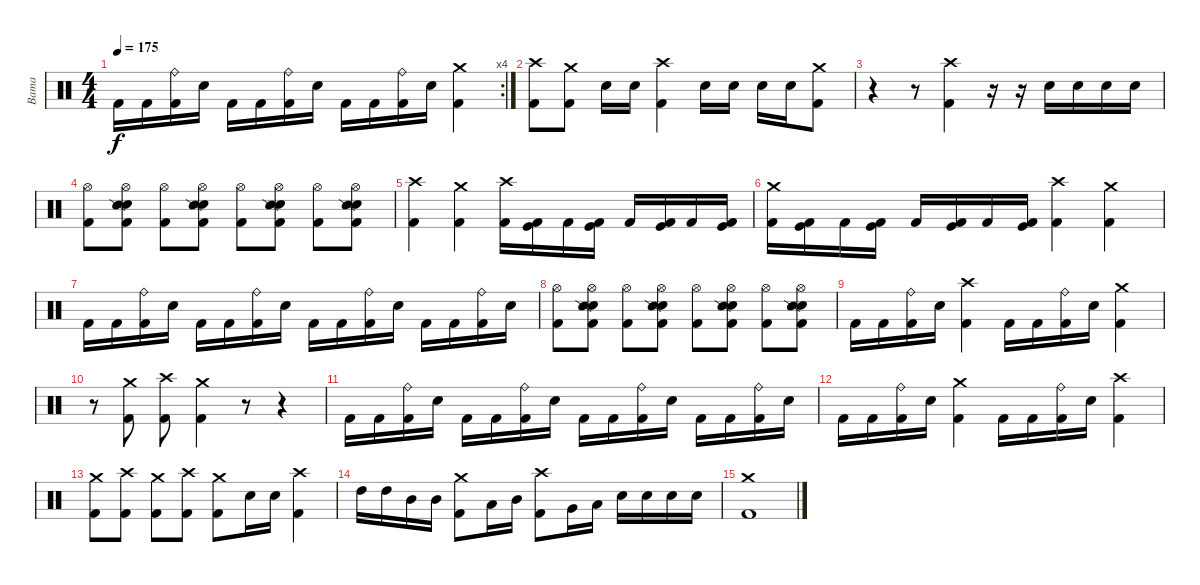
\track ("Bama" "Bama") {instrument percussion}
\staff {score}
\articulation defaults
\rc 4
\ts (4 4)
\tempo 175
\clef neutral
\ks c "Kick (hit) 2".16{dy f} "Kick (hit) 2".16
("Ride (bell)" "Kick (hit) 2").16 "Electric Snare (hit)".16 "Kick (hit) 2".16 "Kick (hit) 2".16 ("Ride (bell)" "Kick (hit) 2").16 "Electric Snare (hit)".16 "Kick (hit) 2".16 "Kick (hit) 2".16 ("Ride (bell)" "Kick (hit) 2").16 "Electric Snare (hit)".16 ("Crash medium (hit)" "Kick (hit) 2").4 |
("Crash high (hit)" "Kick (hit) 2").8 ("Crash medium (hit)" "Kick (hit) 2").8 "Electric Snare (hit)".16 "Electric Snare (hit)".16 ("Crash high (hit)" "Kick (hit) 2").4 "Electric Snare (hit)".16 "Electric Snare (hit)".16 "Electric Snare (hit)".16 "Electric Snare (hit)".16 ("Crash medium (hit)" "Kick (hit) 2").8 |
r.4 r.8 ("Crash high (hit)" "Kick (hit) 2").4 r.16 r.16 "Electric Snare (hit)".16 "Electric Snare (hit)".16 "Electric Snare (hit)".16 "Electric Snare (hit)".16 |
("Hi-Hat (open)" "Kick (hit) 2").8 ("Hi-Hat (open)" "Electric Snare (hit)" "Snare (side stick) 2" "Kick (hit) 2").8 ("Hi-Hat (open)" "Kick (hit) 2").8 ("Hi-Hat (open)" "Electric Snare (hit)" "Snare (side stick) 2" "Kick (hit) 2").8 ("Hi-Hat (open)" "Kick (hit) 2").8 ("Hi-Hat (open)" "Electric Snare (hit)" "Snare (side stick) 2" "Kick (hit) 2").8 ("Hi-Hat (open)" "Kick (hit) 2").8 ("Hi-Hat (open)" "Electric Snare (hit)" "Snare (side stick) 2" "Kick (hit) 2").8 |
("Crash high (hit)" "Kick (hit) 2").4 ("Crash medium (hit)" "Kick (hit) 2").4 ("Crash high (hit)" "Kick (hit) 2").16 ("Kick (hit)" "Kick (hit) 2").16 "Kick (hit) 2".16 ("Kick (hit)" "Kick (hit) 2").16 "Kick (hit) 2".16 ("Kick (hit)" "Kick (hit) 2").16 "Kick (hit) 2".16 ("Kick (hit)" "Kick (hit) 2").16 |
("Crash medium (hit)" "Kick (hit) 2").16 ("Kick (hit)" "Kick (hit) 2").16 "Kick (hit) 2".16 ("Kick (hit)" "Kick (hit) 2").16 "Kick (hit) 2".16 ("Kick (hit)" "Kick (hit) 2").16 "Kick (hit) 2".16 ("Kick (hit)" "Kick (hit) 2").16 ("Crash high (hit)" "Kick (hit) 2").4 ("Crash medium (hit)" "Kick (hit) 2").4 |
"Kick (hit) 2".16 "Kick (hit) 2".16 ("Ride (bell)" "Kick (hit) 2").16 "Electric Snare (hit)".16 "Kick (hit) 2".16 "Kick (hit) 2".16 ("Ride (bell)" "Kick (hit) 2").16 "Electric Snare (hit)".16 "Kick (hit) 2".16 "Kick (hit) 2".16 ("Ride (bell)" "Kick (hit) 2").16 "Electric Snare (hit)".16 "Kick (hit) 2".16 "Kick (hit) 2".16 ("Ride (bell)" "Kick (hit) 2").16 "Electric Snare (hit)".16 |
("Hi-Hat (open)" "Kick (hit) 2").8 ("Hi-Hat (open)" "Electric Snare (hit)" "Snare (side stick) 2" "Kick (hit) 2").8 ("Hi-Hat (open)" "Kick (hit) 2").8 ("Hi-Hat (open)" "Electric Snare (hit)" "Snare (side stick) 2" "Kick (hit) 2").8 ("Hi-Hat (open)" "Kick (hit) 2").8 ("Hi-Hat (open)" "Electric Snare (hit)" "Snare (side stick) 2" "Kick (hit) 2").8 ("Hi-Hat (open)" "Kick (hit) 2").8 ("Hi-Hat (open)" "Electric Snare (hit)" "Snare (side stick) 2" "Kick (hit) 2").8 |
"Kick (hit) 2".16 "Kick (hit) 2".16 ("Ride (bell)" "Kick (hit) 2").16 "Electric Snare (hit)".16 ("Crash high (hit)" "Kick (hit) 2").4 "Kick (hit) 2".16 "Kick (hit) 2".16 ("Ride (bell)" "Kick (hit) 2").16 "Electric Snare (hit)".16 ("Crash medium (hit)" "Kick (hit) 2").4 |
r.8 ("Crash medium (hit)" "Kick (hit) 2").8 ("Crash high (hit)" "Kick (hit) 2").8 ("Crash medium (hit)" "Kick (hit) 2").4 r.8 r.4 |
"Kick (hit) 2".16 "Kick (hit) 2".16 ("Ride (bell)" "Kick (hit) 2").16 "Electric Snare (hit)".16 "Kick (hit) 2".16 "Kick (hit) 2".16 ("Ride (bell)" "Kick (hit) 2").16 "Electric Snare (hit)".16 "Kick (hit) 2".16 "Kick (hit) 2".16 ("Ride (bell)" "Kick (hit) 2").16 "Electric Snare (hit)".16 "Kick (hit) 2".16 "Kick (hit) 2".16 ("Ride (bell)" "Kick (hit) 2").16 "Electric Snare (hit)".16 |
"Kick (hit) 2".16 "Kick (hit) 2".16 ("Ride (bell)" "Kick (hit) 2").16 "Electric Snare (hit)".16 ("Crash medium (hit)" "Kick (hit) 2").4 "Kick (hit) 2".16 "Kick (hit) 2".16 ("Ride (bell)" "Kick (hit) 2").16 "Electric Snare (hit)".16 ("Crash high (hit)" "Kick (hit) 2").4 |
("Crash medium (hit)" "Kick (hit) 2").8 ("Crash high (hit)" "Kick (hit) 2").8 ("Crash medium (hit)" "Kick (hit) 2").8 ("Crash high (hit)" "Kick (hit) 2").8 ("Crash medium (hit)" "Kick (hit) 2").8 "Electric Snare (hit)".16 "Electric Snare (hit)".16 ("Crash high (hit)" "Kick (hit) 2").4 |
"High Tom (hit)".16 "High Tom (hit)".16 "Mid Tom (hit)".16 "Mid Tom (hit)".16 ("Crash medium (hit)" "Kick (hit) 2").8 "Low Tom (hit)".16 "Mid Tom (hit)".16 ("Crash high (hit)" "Kick (hit) 2").8 "Very Low Tom (hit)".16 "Low Floor Tom (hit)".16 "Electric Snare (hit)".16 "Electric Snare (hit)".16 "Electric Snare (hit)".16 "Electric Snare (hit)".16 |
("Crash medium (hit)" "Kick (hit) 2").1
